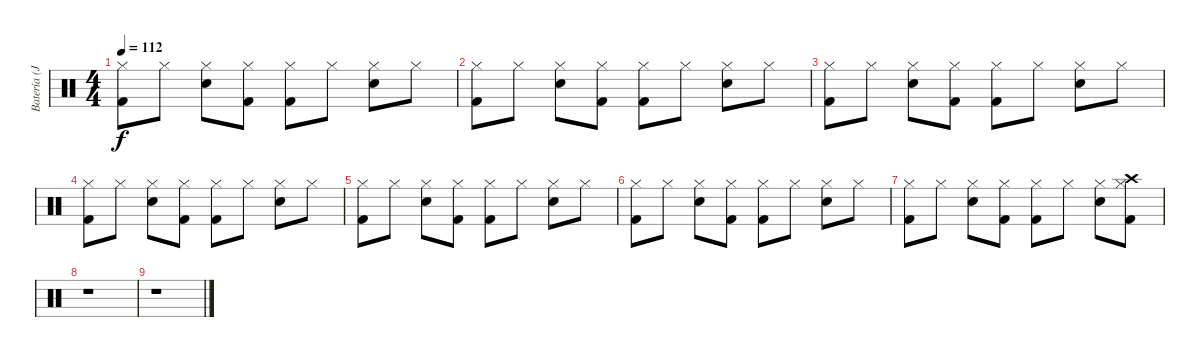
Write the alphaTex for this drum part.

\track ("Batería (Javi Molina)" "Batería (J") {instrument percussion}
\staff {score}
\articulation defaults
\ts (4 4)
\tempo 112
\clef neutral
\ks c
("Hi-Hat (closed)" "Kick (hit) 2").8{dy f} "Hi-Hat (closed)".8 ("Hi-Hat (closed)" "Electric Snare (hit)").8 ("Hi-Hat (closed)" "Kick (hit) 2").8 ("Hi-Hat (closed)" "Kick (hit) 2").8 "Hi-Hat (closed)".8 ("Hi-Hat (closed)" "Electric Snare (hit)").8 "Hi-Hat (closed)".8 |
("Hi-Hat (closed)" "Kick (hit) 2").8 "Hi-Hat (closed)".8 ("Hi-Hat (closed)" "Electric Snare (hit)").8 ("Hi-Hat (closed)" "Kick (hit) 2").8 ("Hi-Hat (closed)" "Kick (hit) 2").8 "Hi-Hat (closed)".8 ("Hi-Hat (closed)" "Electric Snare (hit)").8 "Hi-Hat (closed)".8 |
("Hi-Hat (closed)" "Kick (hit) 2").8 "Hi-Hat (closed)".8 ("Hi-Hat (closed)" "Electric Snare (hit)").8 ("Hi-Hat (closed)" "Kick (hit) 2").8 ("Hi-Hat (closed)" "Kick (hit) 2").8 "Hi-Hat (closed)".8 ("Hi-Hat (closed)" "Electric Snare (hit)").8 "Hi-Hat (closed)".8 |
("Hi-Hat (closed)" "Kick (hit) 2").8 "Hi-Hat (closed)".8 ("Hi-Hat (closed)" "Electric Snare (hit)").8 ("Hi-Hat (closed)" "Kick (hit) 2").8 ("Hi-Hat (closed)" "Kick (hit) 2").8 "Hi-Hat (closed)".8 ("Hi-Hat (closed)" "Electric Snare (hit)").8 "Hi-Hat (closed)".8 |
("Hi-Hat (closed)" "Kick (hit) 2").8 "Hi-Hat (closed)".8 ("Hi-Hat (closed)" "Electric Snare (hit)").8 ("Hi-Hat (closed)" "Kick (hit) 2").8 ("Hi-Hat (closed)" "Kick (hit) 2").8 "Hi-Hat (closed)".8 ("Hi-Hat (closed)" "Electric Snare (hit)").8 "Hi-Hat (closed)".8 |
("Hi-Hat (closed)" "Kick (hit) 2").8 "Hi-Hat (closed)".8 ("Hi-Hat (closed)" "Electric Snare (hit)").8 ("Hi-Hat (closed)" "Kick (hit) 2").8 ("Hi-Hat (closed)" "Kick (hit) 2").8 "Hi-Hat (closed)".8 ("Hi-Hat (closed)" "Electric Snare (hit)").8 "Hi-Hat (closed)".8 |
("Hi-Hat (closed)" "Kick (hit) 2").8 "Hi-Hat (closed)".8 ("Hi-Hat (closed)" "Electric Snare (hit)").8 ("Hi-Hat (closed)" "Kick (hit) 2").8 ("Hi-Hat (closed)" "Kick (hit) 2").8 "Hi-Hat (closed)".8 ("Hi-Hat (closed)" "Electric Snare (hit)").8 ("Hi-Hat (closed)" "Crash high (hit)" "Kick (hit) 2").8 |
r.1 |
r.1
